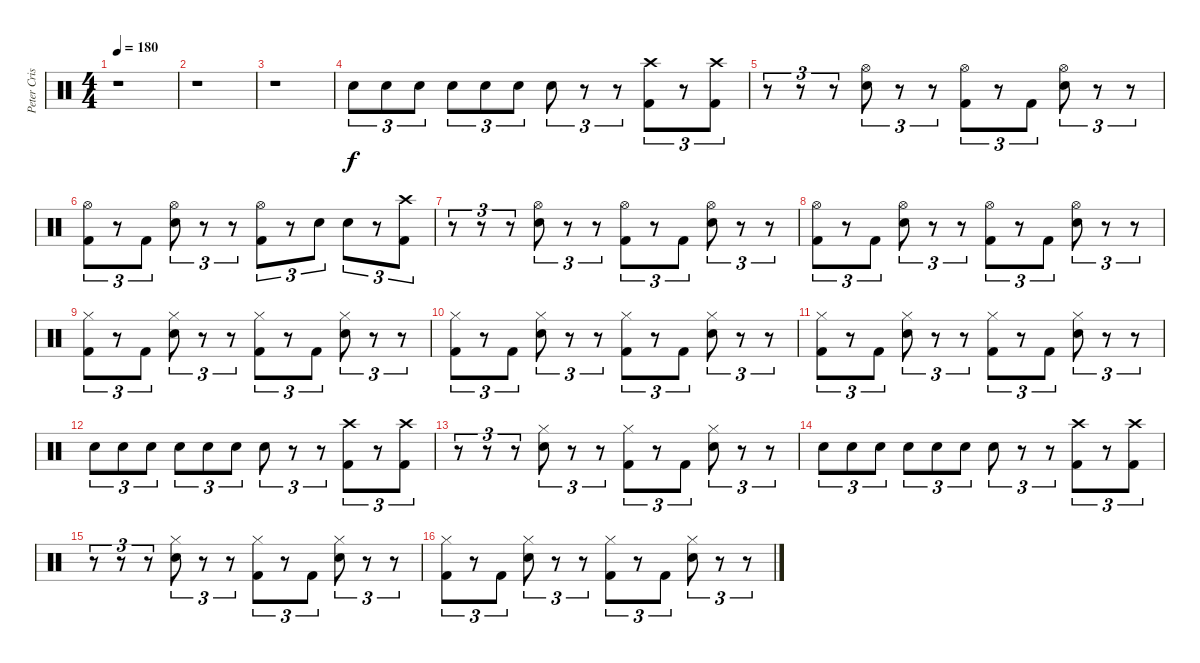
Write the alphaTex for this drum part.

\track ("Peter Criss" "Peter Cris") {instrument percussion}
\staff {score}
\articulation defaults
\ts (4 4)
\tempo 180
\clef neutral
\ks c
r.1{dy f} |
r.1 |
r.1 |
"Electric Snare (hit)".8{tu (3 2)} "Electric Snare (hit)".8{tu (3 2)} "Electric Snare (hit)".8{tu (3 2)} "Electric Snare (hit)".8{tu (3 2)} "Electric Snare (hit)".8{tu (3 2)} "Electric Snare (hit)".8{tu (3 2)} "Electric Snare (hit)".8{tu (3 2)} r.8{tu (3 2)} r.8{tu (3 2)} ("Crash high (hit)" "Kick (hit) 2").8{tu (3 2)} r.8{tu (3 2)} ("Crash high (hit)" "Kick (hit) 2").8{tu (3 2)} |
r.8{tu (3 2)} r.8{tu (3 2)} r.8{tu (3 2)} ("Hi-Hat (open)" "Electric Snare (hit)").8{tu (3 2)} r.8{tu (3 2)} r.8{tu (3 2)} ("Hi-Hat (open)" "Kick (hit) 2").8{tu (3 2)} r.8{tu (3 2)} "Kick (hit) 2".8{tu (3 2)} ("Hi-Hat (open)" "Electric Snare (hit)").8{tu (3 2)} r.8{tu (3 2)} r.8{tu (3 2)} |
("Hi-Hat (open)" "Kick (hit) 2").8{tu (3 2)} r.8{tu (3 2)} "Kick (hit) 2".8{tu (3 2)} ("Hi-Hat (open)" "Electric Snare (hit)").8{tu (3 2)} r.8{tu (3 2)} r.8{tu (3 2)} ("Hi-Hat (open)" "Kick (hit) 2").8{tu (3 2)} r.8{tu (3 2)} "Electric Snare (hit)".8{tu (3 2)} "Electric Snare (hit)".8{tu (3 2)} r.8{tu (3 2)} ("Crash high (hit)" "Kick (hit) 2").8{tu (3 2)} |
r.8{tu (3 2)} r.8{tu (3 2)} r.8{tu (3 2)} ("Hi-Hat (open)" "Electric Snare (hit)").8{tu (3 2)} r.8{tu (3 2)} r.8{tu (3 2)} ("Hi-Hat (open)" "Kick (hit) 2").8{tu (3 2)} r.8{tu (3 2)} "Kick (hit) 2".8{tu (3 2)} ("Hi-Hat (open)" "Electric Snare (hit)").8{tu (3 2)} r.8{tu (3 2)} r.8{tu (3 2)} |
("Hi-Hat (open)" "Kick (hit) 2").8{tu (3 2)} r.8{tu (3 2)} "Kick (hit) 2".8{tu (3 2)} ("Hi-Hat (open)" "Electric Snare (hit)").8{tu (3 2)} r.8{tu (3 2)} r.8{tu (3 2)} ("Hi-Hat (open)" "Kick (hit) 2").8{tu (3 2)} r.8{tu (3 2)} "Kick (hit) 2".8{tu (3 2)} ("Hi-Hat (open)" "Electric Snare (hit)").8{tu (3 2)} r.8{tu (3 2)} r.8{tu (3 2)} |
("Hi-Hat (closed)" "Kick (hit) 2").8{tu (3 2)} r.8{tu (3 2)} "Kick (hit) 2".8{tu (3 2)} ("Hi-Hat (closed)" "Electric Snare (hit)").8{tu (3 2)} r.8{tu (3 2)} r.8{tu (3 2)} ("Hi-Hat (closed)" "Kick (hit) 2").8{tu (3 2)} r.8{tu (3 2)} "Kick (hit) 2".8{tu (3 2)} ("Hi-Hat (closed)" "Electric Snare (hit)").8{tu (3 2)} r.8{tu (3 2)} r.8{tu (3 2)} |
("Hi-Hat (closed)" "Kick (hit) 2").8{tu (3 2)} r.8{tu (3 2)} "Kick (hit) 2".8{tu (3 2)} ("Hi-Hat (closed)" "Electric Snare (hit)").8{tu (3 2)} r.8{tu (3 2)} r.8{tu (3 2)} ("Hi-Hat (closed)" "Kick (hit) 2").8{tu (3 2)} r.8{tu (3 2)} "Kick (hit) 2".8{tu (3 2)} ("Hi-Hat (closed)" "Electric Snare (hit)").8{tu (3 2)} r.8{tu (3 2)} r.8{tu (3 2)} |
("Hi-Hat (closed)" "Kick (hit) 2").8{tu (3 2)} r.8{tu (3 2)} "Kick (hit) 2".8{tu (3 2)} ("Hi-Hat (closed)" "Electric Snare (hit)").8{tu (3 2)} r.8{tu (3 2)} r.8{tu (3 2)} ("Hi-Hat (closed)" "Kick (hit) 2").8{tu (3 2)} r.8{tu (3 2)} "Kick (hit) 2".8{tu (3 2)} ("Hi-Hat (closed)" "Electric Snare (hit)").8{tu (3 2)} r.8{tu (3 2)} r.8{tu (3 2)} |
"Electric Snare (hit)".8{tu (3 2)} "Electric Snare (hit)".8{tu (3 2)} "Electric Snare (hit)".8{tu (3 2)} "Electric Snare (hit)".8{tu (3 2)} "Electric Snare (hit)".8{tu (3 2)} "Electric Snare (hit)".8{tu (3 2)} "Electric Snare (hit)".8{tu (3 2)} r.8{tu (3 2)} r.8{tu (3 2)} ("Crash high (hit)" "Kick (hit) 2").8{tu (3 2)} r.8{tu (3 2)} ("Crash high (hit)" "Kick (hit) 2").8{tu (3 2)} |
r.8{tu (3 2)} r.8{tu (3 2)} r.8{tu (3 2)} ("Hi-Hat (closed)" "Electric Snare (hit)").8{tu (3 2)} r.8{tu (3 2)} r.8{tu (3 2)} ("Hi-Hat (closed)" "Kick (hit) 2").8{tu (3 2)} r.8{tu (3 2)} "Kick (hit) 2".8{tu (3 2)} ("Hi-Hat (closed)" "Electric Snare (hit)").8{tu (3 2)} r.8{tu (3 2)} r.8{tu (3 2)} |
"Electric Snare (hit)".8{tu (3 2)} "Electric Snare (hit)".8{tu (3 2)} "Electric Snare (hit)".8{tu (3 2)} "Electric Snare (hit)".8{tu (3 2)} "Electric Snare (hit)".8{tu (3 2)} "Electric Snare (hit)".8{tu (3 2)} "Electric Snare (hit)".8{tu (3 2)} r.8{tu (3 2)} r.8{tu (3 2)} ("Crash high (hit)" "Kick (hit) 2").8{tu (3 2)} r.8{tu (3 2)} ("Crash high (hit)" "Kick (hit) 2").8{tu (3 2)} |
r.8{tu (3 2)} r.8{tu (3 2)} r.8{tu (3 2)} ("Hi-Hat (closed)" "Electric Snare (hit)").8{tu (3 2)} r.8{tu (3 2)} r.8{tu (3 2)} ("Hi-Hat (closed)" "Kick (hit) 2").8{tu (3 2)} r.8{tu (3 2)} "Kick (hit) 2".8{tu (3 2)} ("Hi-Hat (closed)" "Electric Snare (hit)").8{tu (3 2)} r.8{tu (3 2)} r.8{tu (3 2)} |
("Hi-Hat (closed)" "Kick (hit) 2").8{tu (3 2)} r.8{tu (3 2)} "Kick (hit) 2".8{tu (3 2)} ("Hi-Hat (closed)" "Electric Snare (hit)").8{tu (3 2)} r.8{tu (3 2)} r.8{tu (3 2)} ("Hi-Hat (closed)" "Kick (hit) 2").8{tu (3 2)} r.8{tu (3 2)} "Kick (hit) 2".8{tu (3 2)} ("Hi-Hat (closed)" "Electric Snare (hit)").8{tu (3 2)} r.8{tu (3 2)} r.8{tu (3 2)}
